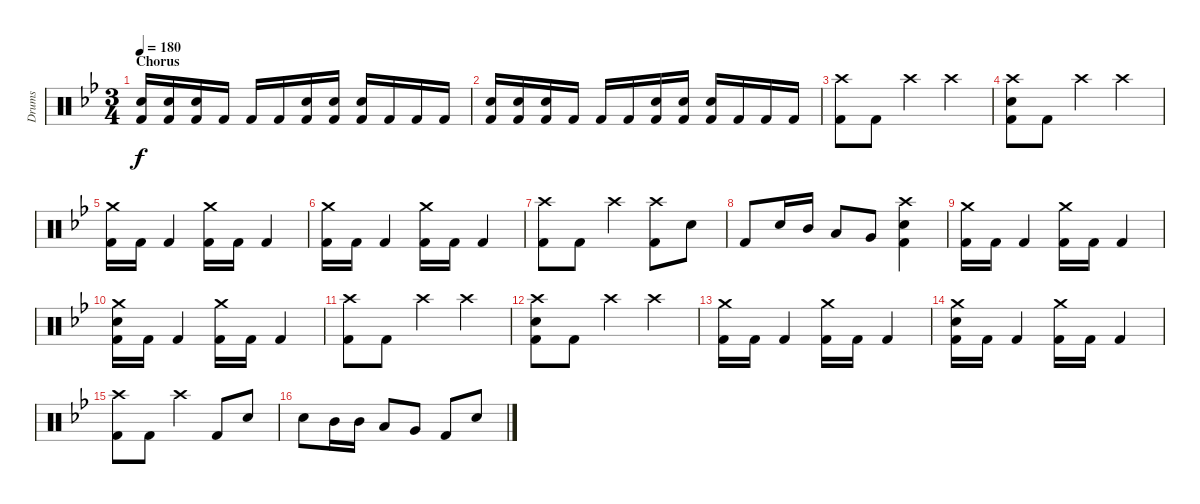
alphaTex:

\bracketExtendMode groupsimilarinstruments
\track ("Drumkit" "Drums") {instrument percussion}
\staff {score}
\articulation defaults
\ts (3 4)
\section ("" "Chorus")
\tempo 180
\clef neutral
\ks bb
("Snare (hit) 2"{acc forcenatural} "Kick (hit) 2"{acc forcenatural}).16{dy f} ("Snare (hit) 2"{acc forcenatural} "Kick (hit) 2"{acc forcenatural}).16 ("Snare (hit) 2"{acc forcenatural} "Kick (hit) 2"{acc forcenatural}).16 "Kick (hit) 2"{acc forcenatural}.16 "Kick (hit) 2"{acc forcenatural}.16 "Kick (hit) 2"{acc forcenatural}.16 ("Snare (hit) 2"{acc forcenatural} "Kick (hit) 2"{acc forcenatural}).16 ("Snare (hit) 2"{acc forcenatural} "Kick (hit) 2"{acc forcenatural}).16 ("Snare (hit) 2"{acc forcenatural} "Kick (hit) 2"{acc forcenatural}).16 "Kick (hit) 2"{acc forcenatural}.16 "Kick (hit) 2"{acc forcenatural}.16 "Kick (hit) 2"{acc forcenatural}.16 |
("Snare (hit) 2"{acc forcenatural} "Kick (hit) 2"{acc forcenatural}).16 ("Snare (hit) 2"{acc forcenatural} "Kick (hit) 2"{acc forcenatural}).16 ("Snare (hit) 2"{acc forcenatural} "Kick (hit) 2"{acc forcenatural}).16 "Kick (hit) 2"{acc forcenatural}.16 "Kick (hit) 2"{acc forcenatural}.16 "Kick (hit) 2"{acc forcenatural}.16 ("Snare (hit) 2"{acc forcenatural} "Kick (hit) 2"{acc forcenatural}).16 ("Snare (hit) 2"{acc forcenatural} "Kick (hit) 2"{acc forcenatural}).16 ("Snare (hit) 2"{acc forcenatural} "Kick (hit) 2"{acc forcenatural}).16 "Kick (hit) 2"{acc forcenatural}.16 "Kick (hit) 2"{acc forcenatural}.16 "Kick (hit) 2"{acc forcenatural}.16 |
("Crash high (hit)"{acc forcenatural} "Kick (hit) 2"{acc forcenatural}).8 "Kick (hit) 2"{acc forcenatural}.8 "Crash high (hit)"{acc forcenatural}.4 "Crash high (hit)"{acc forcenatural}.4 |
("Crash high (hit)"{acc forcenatural} "Snare (hit) 2"{acc forcenatural} "Kick (hit) 2"{acc forcenatural}).8 "Kick (hit) 2"{acc forcenatural}.8 "Crash high (hit)"{acc forcenatural}.4 "Crash high (hit)"{acc forcenatural}.4 |
("Crash medium (hit)"{acc forcenatural} "Kick (hit) 2"{acc forcenatural}).16 "Kick (hit) 2"{acc forcenatural}.16 "Kick (hit) 2"{acc forcenatural}.4 ("Crash medium (hit)"{acc forcenatural} "Kick (hit) 2"{acc forcenatural}).16 "Kick (hit) 2"{acc forcenatural}.16 "Kick (hit) 2"{acc forcenatural}.4 |
("Crash medium (hit)"{acc forcenatural} "Kick (hit) 2"{acc forcenatural}).16 "Kick (hit) 2"{acc forcenatural}.16 "Kick (hit) 2"{acc forcenatural}.4 ("Crash medium (hit)"{acc forcenatural} "Kick (hit) 2"{acc forcenatural}).16 "Kick (hit) 2"{acc forcenatural}.16 "Kick (hit) 2"{acc forcenatural}.4 |
("Crash high (hit)"{acc forcenatural} "Kick (hit) 2"{acc forcenatural}).8 "Kick (hit) 2"{acc forcenatural}.8 "Crash high (hit)"{acc forcenatural}.4 ("Crash high (hit)"{acc forcenatural} "Kick (hit) 2"{acc forcenatural}).8 "Snare (hit) 2"{acc forcenatural}.8 |
"Kick (hit) 2"{acc forcenatural}.8 "Snare (hit) 2"{acc forcenatural}.16 "Mid Tom (hit)"{acc forcenatural}.16 "Low Tom (hit)"{acc forcenatural}.8 "Very Low Tom (hit)"{acc forcenatural}.8 ("Crash high (hit)"{acc forcenatural} "Snare (hit) 2"{acc forcenatural} "Kick (hit) 2"{acc forcenatural}).4 |
("Crash medium (hit)"{acc forcenatural} "Kick (hit) 2"{acc forcenatural}).16 "Kick (hit) 2"{acc forcenatural}.16 "Kick (hit) 2"{acc forcenatural}.4 ("Crash medium (hit)"{acc forcenatural} "Kick (hit) 2"{acc forcenatural}).16 "Kick (hit) 2"{acc forcenatural}.16 "Kick (hit) 2"{acc forcenatural}.4 |
("Crash medium (hit)"{acc forcenatural} "Snare (hit) 2"{acc forcenatural} "Kick (hit) 2"{acc forcenatural}).16 "Kick (hit) 2"{acc forcenatural}.16 "Kick (hit) 2"{acc forcenatural}.4 ("Crash medium (hit)"{acc forcenatural} "Kick (hit) 2"{acc forcenatural}).16 "Kick (hit) 2"{acc forcenatural}.16 "Kick (hit) 2"{acc forcenatural}.4 |
("Crash high (hit)"{acc forcenatural} "Kick (hit) 2"{acc forcenatural}).8 "Kick (hit) 2"{acc forcenatural}.8 "Crash high (hit)"{acc forcenatural}.4 "Crash high (hit)"{acc forcenatural}.4 |
("Crash high (hit)"{acc forcenatural} "Snare (hit) 2"{acc forcenatural} "Kick (hit) 2"{acc forcenatural}).8 "Kick (hit) 2"{acc forcenatural}.8 "Crash high (hit)"{acc forcenatural}.4 "Crash high (hit)"{acc forcenatural}.4 |
("Crash medium (hit)"{acc forcenatural} "Kick (hit) 2"{acc forcenatural}).16 "Kick (hit) 2"{acc forcenatural}.16 "Kick (hit) 2"{acc forcenatural}.4 ("Crash medium (hit)"{acc forcenatural} "Kick (hit) 2"{acc forcenatural}).16 "Kick (hit) 2"{acc forcenatural}.16 "Kick (hit) 2"{acc forcenatural}.4 |
("Crash medium (hit)"{acc forcenatural} "Snare (hit) 2"{acc forcenatural} "Kick (hit) 2"{acc forcenatural}).16 "Kick (hit) 2"{acc forcenatural}.16 "Kick (hit) 2"{acc forcenatural}.4 ("Crash medium (hit)"{acc forcenatural} "Kick (hit) 2"{acc forcenatural}).16 "Kick (hit) 2"{acc forcenatural}.16 "Kick (hit) 2"{acc forcenatural}.4 |
("Crash high (hit)"{acc forcenatural} "Kick (hit) 2"{acc forcenatural}).8 "Kick (hit) 2"{acc forcenatural}.8 "Crash high (hit)"{acc forcenatural}.4 "Kick (hit) 2"{acc forcenatural}.8 "Snare (hit) 2"{acc forcenatural}.8 |
"Snare (hit) 2"{acc forcenatural}.8 "Mid Tom (hit)"{acc forcenatural}.16 "Mid Tom (hit)"{acc forcenatural}.16 "Low Tom (hit)"{acc forcenatural}.8 "Very Low Tom (hit)"{acc forcenatural}.8 "Kick (hit) 2"{acc forcenatural}.8 "Snare (hit) 2"{acc forcenatural}.8
